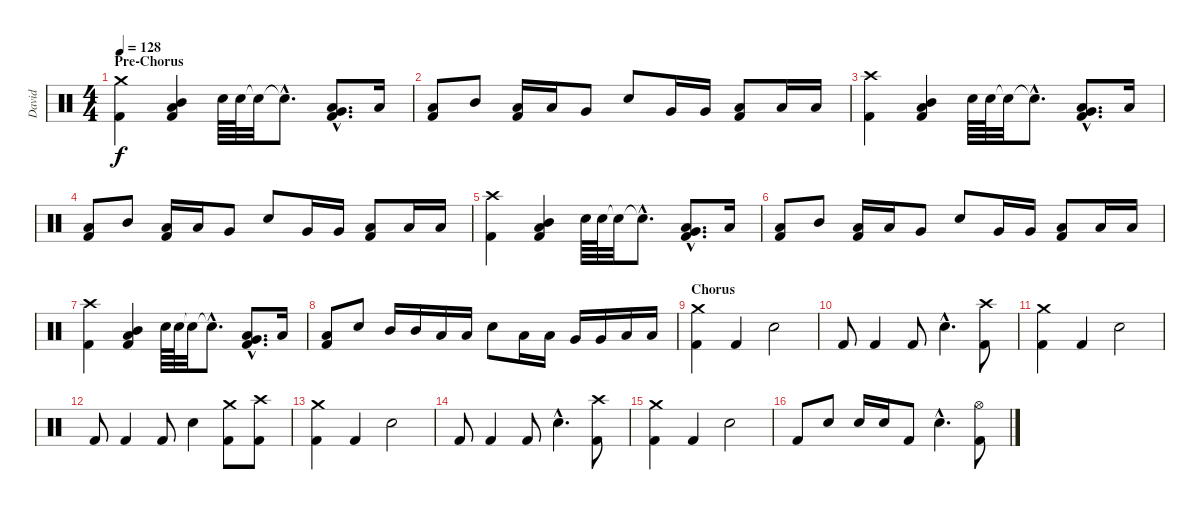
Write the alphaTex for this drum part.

\track ("David" "David") {instrument percussion}
\staff {score}
\articulation defaults
\ts (4 4)
\section ("" "Pre-Chorus")
\tempo 128
\clef neutral
\ks c
("Crash medium (hit)" "Kick (hit) 2").4{dy f} ("Mid Tom (hit)" "Low Tom (hit)" "Kick (hit) 2").4 "Snare (hit) 2".64 "Snare (hit) 2".64 "Snare (hit)"{t}.32 "Snare (hit)"{hac t}.8{d} ("Low Tom (hit)"{hac} "Very Low Tom (hit)"{hac} "Kick (hit) 2"{hac}).8{d} "Low Tom (hit)".16 |
("Low Tom (hit)" "Kick (hit) 2").8 "Mid Tom (hit)".8 ("Low Tom (hit)" "Kick (hit) 2").16 "Low Tom (hit)".16 "Very Low Tom (hit)".8 "Snare (hit) 2".8 "Very Low Tom (hit)".16 "Very Low Tom (hit)".16 ("Low Floor Tom (hit)" "Kick (hit) 2").8 "Low Floor Tom (hit)".16 "Low Floor Tom (hit)".16 |
("Crash high (hit)" "Kick (hit) 2").4 ("Mid Tom (hit)" "Low Tom (hit)" "Kick (hit) 2").4 "Snare (hit) 2".64 "Snare (hit) 2".64 "Snare (hit)"{t}.32 "Snare (hit)"{hac t}.8{d} ("Low Tom (hit)"{hac} "Very Low Tom (hit)"{hac} "Kick (hit) 2"{hac}).8{d} "Low Tom (hit)".16 |
("Low Tom (hit)" "Kick (hit) 2").8 "Mid Tom (hit)".8 ("Low Tom (hit)" "Kick (hit) 2").16 "Low Tom (hit)".16 "Very Low Tom (hit)".8 "Snare (hit) 2".8 "Very Low Tom (hit)".16 "Very Low Tom (hit)".16 ("Low Floor Tom (hit)" "Kick (hit) 2").8 "Low Floor Tom (hit)".16 "Low Floor Tom (hit)".16 |
("Crash high (hit)" "Kick (hit) 2").4 ("Mid Tom (hit)" "Low Tom (hit)" "Kick (hit) 2").4 "Snare (hit) 2".64 "Snare (hit) 2".64 "Snare (hit)"{t}.32 "Snare (hit)"{hac t}.8{d} ("Low Tom (hit)"{hac} "Very Low Tom (hit)"{hac} "Kick (hit) 2"{hac}).8{d} "Low Tom (hit)".16 |
("Low Tom (hit)" "Kick (hit) 2").8 "Mid Tom (hit)".8 ("Low Tom (hit)" "Kick (hit) 2").16 "Low Tom (hit)".16 "Very Low Tom (hit)".8 "Snare (hit) 2".8 "Very Low Tom (hit)".16 "Very Low Tom (hit)".16 ("Low Floor Tom (hit)" "Kick (hit) 2").8 "Low Floor Tom (hit)".16 "Low Floor Tom (hit)".16 |
("Crash high (hit)" "Kick (hit) 2").4 ("Mid Tom (hit)" "Low Tom (hit)" "Kick (hit) 2").4 "Snare (hit) 2".64 "Snare (hit) 2".64 "Snare (hit)"{t}.32 "Snare (hit)"{hac t}.8{d} ("Low Tom (hit)"{hac} "Very Low Tom (hit)"{hac} "Kick (hit) 2"{hac}).8{d} "Low Tom (hit)".16 |
("Low Tom (hit)" "Kick (hit) 2").8 "Snare (hit) 2".8 "Mid Tom (hit)".16 "Mid Tom (hit)".16 "Low Tom (hit)".16 "Low Tom (hit)".16 "Snare (hit) 2".8 "Low Tom (hit)".16 "Low Tom (hit)".16 "Very Low Tom (hit)".16 "Very Low Tom (hit)".16 "Low Floor Tom (hit)".16 "Low Floor Tom (hit)".16 |
\section ("" "Chorus")
("Crash medium (hit)" "Kick (hit) 2").4 "Kick (hit) 2".4 "Snare (hit) 2".2 |
"Kick (hit) 2".8 "Kick (hit) 2".4 "Kick (hit) 2".8 "Snare (hit) 2"{hac}.4{d} ("Crash high (hit)" "Kick (hit) 2").8 |
("Crash medium (hit)" "Kick (hit) 2").4 "Kick (hit) 2".4 "Snare (hit) 2".2 |
"Kick (hit) 2".8 "Kick (hit) 2".4 "Kick (hit) 2".8 "Snare (hit) 2".4 ("Crash medium (hit)" "Kick (hit) 2").8 ("Crash high (hit)" "Kick (hit) 2").8 |
("Crash medium (hit)" "Kick (hit) 2").4 "Kick (hit) 2".4 "Snare (hit) 2".2 |
"Kick (hit) 2".8 "Kick (hit) 2".4 "Kick (hit) 2".8 "Snare (hit) 2"{hac}.4{d} ("Crash high (hit)" "Kick (hit) 2").8 |
("Crash medium (hit)" "Kick (hit) 2").4 "Kick (hit) 2".4 "Snare (hit) 2".2 |
"Kick (hit) 2".8 "Snare (hit) 2".8 "Snare (hit) 2".16 "Snare (hit) 2".16 "Kick (hit) 2".8 "Snare (hit) 2"{hac}.4{d} ("Hi-Hat (open)" "Kick (hit) 2").8
